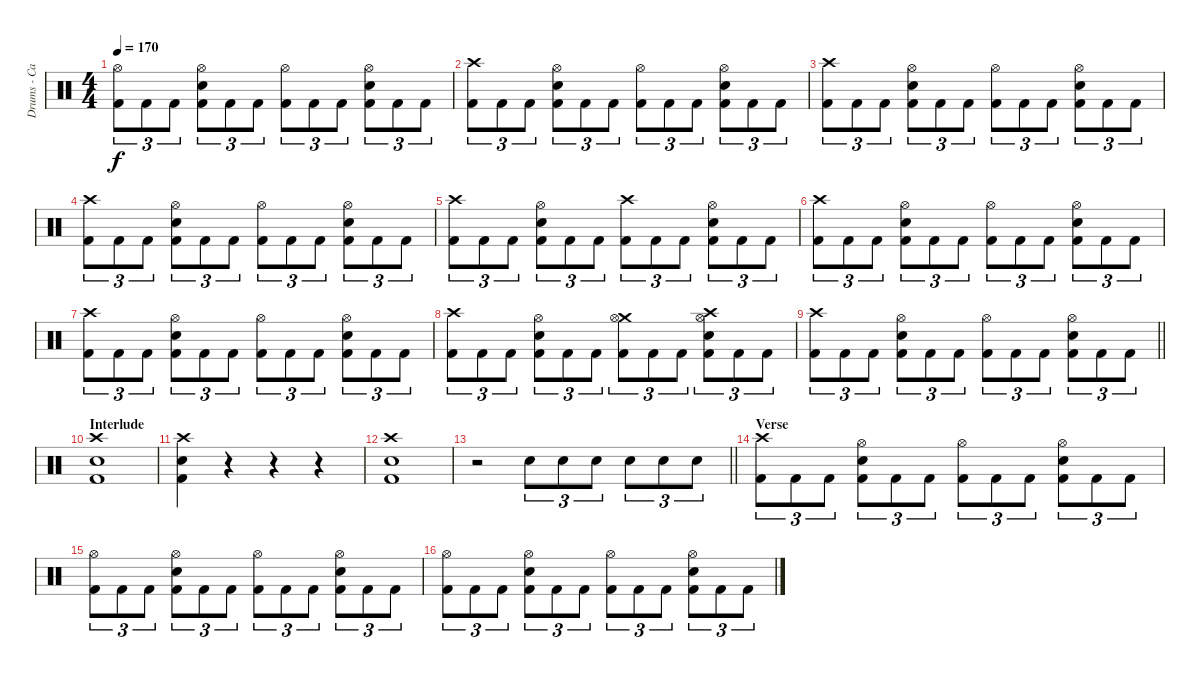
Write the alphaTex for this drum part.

\track ("Drums - Casey Grillo" "Drums - Ca") {instrument percussion}
\staff {score}
\articulation defaults
\ts (4 4)
\tempo 170
\clef neutral
\ks c
("Hi-Hat (open)" "Kick (hit) 2").8{tu (3 2) dy f} "Kick (hit) 2".8{tu (3 2)} "Kick (hit) 2".8{tu (3 2)} ("Hi-Hat (open)" "Snare (hit) 2" "Kick (hit) 2").8{tu (3 2)} "Kick (hit) 2".8{tu (3 2)} "Kick (hit) 2".8{tu (3 2)} ("Hi-Hat (open)" "Kick (hit) 2").8{tu (3 2)} "Kick (hit) 2".8{tu (3 2)} "Kick (hit) 2".8{tu (3 2)} ("Hi-Hat (open)" "Snare (hit) 2" "Kick (hit) 2").8{tu (3 2)} "Kick (hit) 2".8{tu (3 2)} "Kick (hit) 2".8{tu (3 2)} |
("Crash high (hit)" "Kick (hit) 2").8{tu (3 2)} "Kick (hit) 2".8{tu (3 2)} "Kick (hit) 2".8{tu (3 2)} ("Hi-Hat (open)" "Snare (hit) 2" "Kick (hit) 2").8{tu (3 2)} "Kick (hit) 2".8{tu (3 2)} "Kick (hit) 2".8{tu (3 2)} ("Hi-Hat (open)" "Kick (hit) 2").8{tu (3 2)} "Kick (hit) 2".8{tu (3 2)} "Kick (hit) 2".8{tu (3 2)} ("Hi-Hat (open)" "Snare (hit) 2" "Kick (hit) 2").8{tu (3 2)} "Kick (hit) 2".8{tu (3 2)} "Kick (hit) 2".8{tu (3 2)} |
("Crash high (hit)" "Kick (hit) 2").8{tu (3 2)} "Kick (hit) 2".8{tu (3 2)} "Kick (hit) 2".8{tu (3 2)} ("Hi-Hat (open)" "Snare (hit) 2" "Kick (hit) 2").8{tu (3 2)} "Kick (hit) 2".8{tu (3 2)} "Kick (hit) 2".8{tu (3 2)} ("Hi-Hat (open)" "Kick (hit) 2").8{tu (3 2)} "Kick (hit) 2".8{tu (3 2)} "Kick (hit) 2".8{tu (3 2)} ("Hi-Hat (open)" "Snare (hit) 2" "Kick (hit) 2").8{tu (3 2)} "Kick (hit) 2".8{tu (3 2)} "Kick (hit) 2".8{tu (3 2)} |
("Crash high (hit)" "Kick (hit) 2").8{tu (3 2)} "Kick (hit) 2".8{tu (3 2)} "Kick (hit) 2".8{tu (3 2)} ("Hi-Hat (open)" "Snare (hit) 2" "Kick (hit) 2").8{tu (3 2)} "Kick (hit) 2".8{tu (3 2)} "Kick (hit) 2".8{tu (3 2)} ("Hi-Hat (open)" "Kick (hit) 2").8{tu (3 2)} "Kick (hit) 2".8{tu (3 2)} "Kick (hit) 2".8{tu (3 2)} ("Hi-Hat (open)" "Snare (hit) 2" "Kick (hit) 2").8{tu (3 2)} "Kick (hit) 2".8{tu (3 2)} "Kick (hit) 2".8{tu (3 2)} |
("Crash high (hit)" "Kick (hit) 2").8{tu (3 2)} "Kick (hit) 2".8{tu (3 2)} "Kick (hit) 2".8{tu (3 2)} ("Hi-Hat (open)" "Snare (hit) 2" "Kick (hit) 2").8{tu (3 2)} "Kick (hit) 2".8{tu (3 2)} "Kick (hit) 2".8{tu (3 2)} ("Crash high (hit)" "Kick (hit) 2").8{tu (3 2)} "Kick (hit) 2".8{tu (3 2)} "Kick (hit) 2".8{tu (3 2)} ("Hi-Hat (open)" "Snare (hit) 2" "Kick (hit) 2").8{tu (3 2)} "Kick (hit) 2".8{tu (3 2)} "Kick (hit) 2".8{tu (3 2)} |
("Crash high (hit)" "Kick (hit) 2").8{tu (3 2)} "Kick (hit) 2".8{tu (3 2)} "Kick (hit) 2".8{tu (3 2)} ("Hi-Hat (open)" "Snare (hit) 2" "Kick (hit) 2").8{tu (3 2)} "Kick (hit) 2".8{tu (3 2)} "Kick (hit) 2".8{tu (3 2)} ("Hi-Hat (open)" "Kick (hit) 2").8{tu (3 2)} "Kick (hit) 2".8{tu (3 2)} "Kick (hit) 2".8{tu (3 2)} ("Hi-Hat (open)" "Snare (hit) 2" "Kick (hit) 2").8{tu (3 2)} "Kick (hit) 2".8{tu (3 2)} "Kick (hit) 2".8{tu (3 2)} |
("Crash high (hit)" "Kick (hit) 2").8{tu (3 2)} "Kick (hit) 2".8{tu (3 2)} "Kick (hit) 2".8{tu (3 2)} ("Hi-Hat (open)" "Snare (hit) 2" "Kick (hit) 2").8{tu (3 2)} "Kick (hit) 2".8{tu (3 2)} "Kick (hit) 2".8{tu (3 2)} ("Hi-Hat (open)" "Kick (hit) 2").8{tu (3 2)} "Kick (hit) 2".8{tu (3 2)} "Kick (hit) 2".8{tu (3 2)} ("Hi-Hat (open)" "Snare (hit) 2" "Kick (hit) 2").8{tu (3 2)} "Kick (hit) 2".8{tu (3 2)} "Kick (hit) 2".8{tu (3 2)} |
("Crash high (hit)" "Kick (hit) 2").8{tu (3 2)} "Kick (hit) 2".8{tu (3 2)} "Kick (hit) 2".8{tu (3 2)} ("Hi-Hat (open)" "Snare (hit) 2" "Kick (hit) 2").8{tu (3 2)} "Kick (hit) 2".8{tu (3 2)} "Kick (hit) 2".8{tu (3 2)} ("Crash medium (hit)" "Hi-Hat (open)" "Kick (hit) 2").8{tu (3 2)} "Kick (hit) 2".8{tu (3 2)} "Kick (hit) 2".8{tu (3 2)} ("Crash high (hit)" "Hi-Hat (open)" "Snare (hit) 2" "Kick (hit) 2").8{tu (3 2)} "Kick (hit) 2".8{tu (3 2)} "Kick (hit) 2".8{tu (3 2)} |
\barLineRight lightlight
("Crash high (hit)" "Kick (hit) 2").8{tu (3 2)} "Kick (hit) 2".8{tu (3 2)} "Kick (hit) 2".8{tu (3 2)} ("Hi-Hat (open)" "Snare (hit) 2" "Kick (hit) 2").8{tu (3 2)} "Kick (hit) 2".8{tu (3 2)} "Kick (hit) 2".8{tu (3 2)} ("Hi-Hat (open)" "Kick (hit) 2").8{tu (3 2)} "Kick (hit) 2".8{tu (3 2)} "Kick (hit) 2".8{tu (3 2)} ("Hi-Hat (open)" "Snare (hit) 2" "Kick (hit) 2").8{tu (3 2)} "Kick (hit) 2".8{tu (3 2)} "Kick (hit) 2".8{tu (3 2)} |
\section ("" "Interlude")
("Crash high (hit)" "Snare (hit) 2" "Kick (hit) 2").1 |
("Crash high (hit)" "Snare (hit) 2" "Kick (hit) 2").4 r.4 r.4 r.4 |
("Crash high (hit)" "Snare (hit) 2" "Kick (hit) 2").1 |
\barLineRight lightlight
r.2 "Snare (hit) 2".8{tu (3 2)} "Snare (hit) 2".8{tu (3 2)} "Snare (hit) 2".8{tu (3 2)} "Snare (hit) 2".8{tu (3 2)} "Snare (hit) 2".8{tu (3 2)} "Snare (hit) 2".8{tu (3 2)} |
\section ("" "Verse")
("Crash high (hit)" "Kick (hit) 2").8{tu (3 2)} "Kick (hit) 2".8{tu (3 2)} "Kick (hit) 2".8{tu (3 2)} ("Hi-Hat (open)" "Snare (hit) 2" "Kick (hit) 2").8{tu (3 2)} "Kick (hit) 2".8{tu (3 2)} "Kick (hit) 2".8{tu (3 2)} ("Hi-Hat (open)" "Kick (hit) 2").8{tu (3 2)} "Kick (hit) 2".8{tu (3 2)} "Kick (hit) 2".8{tu (3 2)} ("Hi-Hat (open)" "Snare (hit) 2" "Kick (hit) 2").8{tu (3 2)} "Kick (hit) 2".8{tu (3 2)} "Kick (hit) 2".8{tu (3 2)} |
("Hi-Hat (open)" "Kick (hit) 2").8{tu (3 2)} "Kick (hit) 2".8{tu (3 2)} "Kick (hit) 2".8{tu (3 2)} ("Hi-Hat (open)" "Snare (hit) 2" "Kick (hit) 2").8{tu (3 2)} "Kick (hit) 2".8{tu (3 2)} "Kick (hit) 2".8{tu (3 2)} ("Hi-Hat (open)" "Kick (hit) 2").8{tu (3 2)} "Kick (hit) 2".8{tu (3 2)} "Kick (hit) 2".8{tu (3 2)} ("Hi-Hat (open)" "Snare (hit) 2" "Kick (hit) 2").8{tu (3 2)} "Kick (hit) 2".8{tu (3 2)} "Kick (hit) 2".8{tu (3 2)} |
("Hi-Hat (open)" "Kick (hit) 2").8{tu (3 2)} "Kick (hit) 2".8{tu (3 2)} "Kick (hit) 2".8{tu (3 2)} ("Hi-Hat (open)" "Snare (hit) 2" "Kick (hit) 2").8{tu (3 2)} "Kick (hit) 2".8{tu (3 2)} "Kick (hit) 2".8{tu (3 2)} ("Hi-Hat (open)" "Kick (hit) 2").8{tu (3 2)} "Kick (hit) 2".8{tu (3 2)} "Kick (hit) 2".8{tu (3 2)} ("Hi-Hat (open)" "Snare (hit) 2" "Kick (hit) 2").8{tu (3 2)} "Kick (hit) 2".8{tu (3 2)} "Kick (hit) 2".8{tu (3 2)}
